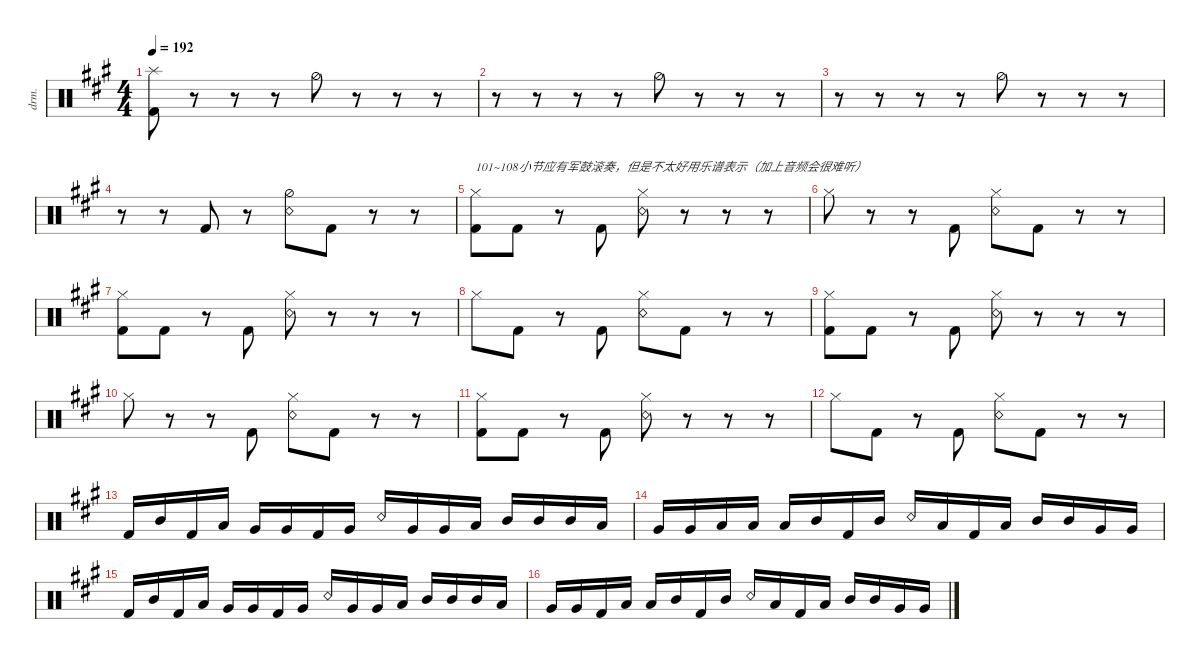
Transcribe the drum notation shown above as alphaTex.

\defaultSystemsLayout 4
\hideDynamics
\bracketExtendMode nobrackets
\otherSystemsTrackNameOrientation horizontal
\track ("Drumkit" "drm.") {instrument percussion}
\staff {score}
\articulation defaults
\ts (4 4)
\tempo 192
\clef neutral
\ks a
("Splash (hit)"{acc forcenatural} "Kick (hit) 2"{acc forcenatural}).8{dy ff beam Down} r.8{beam Down} r.8{beam Down} r.8{beam Down} "Hi-Hat (half)"{acc forcenatural}.8{beam Down} r.8{beam Down} r.8{beam Down} r.8{beam Down} |
r.8{beam Down} r.8{beam Down} r.8{beam Down} r.8{beam Down} "Hi-Hat (half)"{acc forcenatural}.8{beam Down} r.8{beam Down} r.8{beam Down} r.8{beam Down} |
r.8{beam Down} r.8{beam Down} r.8{beam Down} r.8{beam Down} "Hi-Hat (half)"{acc forcenatural}.8{beam Down} r.8{beam Down} r.8{beam Down} r.8{beam Down} |
r.8{beam Down} r.8{beam Down} "Kick (hit) 2"{acc forcenatural}.8{beam Up} r.8{beam Up} ("Snare (rim shot)"{acc forcenatural} "Hi-Hat (half)"{acc forcenatural}).8{beam Down} "Kick (hit) 2"{acc forcenatural}.8{beam Down} r.8{beam Down} r.8{beam Down} |
("Kick (hit) 2"{acc forcenatural} "Hi-Hat (closed)"{acc forcenatural}).8{txt "101~108小节应有军鼓滚奏，但是不太好用乐谱表示（加上音频会很难听）" beam Down} "Kick (hit) 2"{acc forcenatural}.8{beam Down} r.8{beam Down} "Kick (hit) 2"{acc forcenatural}.8{beam Up} ("Snare (rim shot)"{acc forcenatural} "Hi-Hat (closed)"{acc forcenatural}).8{beam Down} r.8{beam Down} r.8{beam Down} r.8{beam Down} |
"Hi-Hat (closed)"{acc forcenatural}.8{beam Down} r.8{beam Down} r.8{beam Down} "Kick (hit) 2"{acc forcenatural}.8{beam Up} ("Snare (rim shot)"{acc forcenatural} "Hi-Hat (closed)"{acc forcenatural}).8{beam Down} "Kick (hit) 2"{acc forcenatural}.8{beam Down} r.8{beam Down} r.8{beam Down} |
("Kick (hit) 2"{acc forcenatural} "Hi-Hat (closed)"{acc forcenatural}).8{beam Down} "Kick (hit) 2"{acc forcenatural}.8{beam Down} r.8{beam Down} "Kick (hit) 2"{acc forcenatural}.8{beam Up} ("Snare (rim shot)"{acc forcenatural} "Hi-Hat (closed)"{acc forcenatural}).8{beam Down} r.8{beam Down} r.8{beam Down} r.8{beam Down} |
"Hi-Hat (closed)"{acc forcenatural}.8{beam Down} "Kick (hit) 2"{acc forcenatural}.8{beam Down} r.8{beam Down} "Kick (hit) 2"{acc forcenatural}.8{beam Up} ("Snare (rim shot)"{acc forcenatural} "Hi-Hat (closed)"{acc forcenatural}).8{beam Down} "Kick (hit) 2"{acc forcenatural}.8{beam Down} r.8{beam Down} r.8{beam Down} |
("Kick (hit) 2"{acc forcenatural} "Hi-Hat (closed)"{acc forcenatural}).8{beam Down} "Kick (hit) 2"{acc forcenatural}.8{beam Down} r.8{beam Down} "Kick (hit) 2"{acc forcenatural}.8{beam Up} ("Snare (rim shot)"{acc forcenatural} "Hi-Hat (closed)"{acc forcenatural}).8{beam Down} r.8{beam Down} r.8{beam Down} r.8{beam Down} |
"Hi-Hat (closed)"{acc forcenatural}.8{beam Down} r.8{beam Down} r.8{beam Down} "Kick (hit) 2"{acc forcenatural}.8{beam Up} ("Snare (rim shot)"{acc forcenatural} "Hi-Hat (closed)"{acc forcenatural}).8{beam Down} "Kick (hit) 2"{acc forcenatural}.8{beam Down} r.8{beam Down} r.8{beam Down} |
("Kick (hit) 2"{acc forcenatural} "Hi-Hat (closed)"{acc forcenatural}).8{beam Down} "Kick (hit) 2"{acc forcenatural}.8{beam Down} r.8{beam Down} "Kick (hit) 2"{acc forcenatural}.8{beam Up} ("Snare (rim shot)"{acc forcenatural} "Hi-Hat (closed)"{acc forcenatural}).8{beam Down} r.8{beam Down} r.8{beam Down} r.8{beam Down} |
"Hi-Hat (closed)"{acc forcenatural}.8{beam Down} "Kick (hit) 2"{acc forcenatural}.8{beam Down} r.8{beam Down} "Kick (hit) 2"{acc forcenatural}.8{beam Up} ("Snare (rim shot)"{acc forcenatural} "Hi-Hat (closed)"{acc forcenatural}).8{beam Down} "Kick (hit) 2"{acc forcenatural}.8{beam Down} r.8{beam Down} r.8{beam Down} |
"Kick (hit) 2"{acc forcenatural}.16{beam Up} "Mid Tom (hit)"{acc forcenatural}.16{beam Up} "Kick (hit) 2"{acc forcenatural}.16{beam Up} "Low Tom (hit)"{acc forcenatural}.16{beam Up} "Very Low Tom (hit)"{acc forcenatural}.16{beam Up} "Very Low Tom (hit)"{acc forcenatural}.16{beam Up} "Kick (hit) 2"{acc forcenatural}.16{beam Up} "Very Low Tom (hit)"{acc forcenatural}.16{beam Up} "Snare (rim shot)"{acc forcenatural}.16{beam Up} "Very Low Tom (hit)"{acc forcenatural}.16{beam Up} "Very Low Tom (hit)"{acc forcenatural}.16{beam Up} "Low Tom (hit)"{acc forcenatural}.16{beam Up} "Mid Tom (hit)"{acc forcenatural}.16{beam Up} "Mid Tom (hit)"{acc forcenatural}.16{beam Up} "Mid Tom (hit)"{acc forcenatural}.16{beam Up} "Low Tom (hit)"{acc forcenatural}.16{beam Up} |
"Very Low Tom (hit)"{acc forcenatural}.16{beam Up} "Very Low Tom (hit)"{acc forcenatural}.16{beam Up} "Low Tom (hit)"{acc forcenatural}.16{beam Up} "Low Tom (hit)"{acc forcenatural}.16{beam Up} "Low Tom (hit)"{acc forcenatural}.16{beam Up} "Mid Tom (hit)"{acc forcenatural}.16{beam Up} "Kick (hit) 2"{acc forcenatural}.16{beam Up} "Mid Tom (hit)"{acc forcenatural}.16{beam Up} "Snare (rim shot)"{acc forcenatural}.16{beam Up} "Low Tom (hit)"{acc forcenatural}.16{beam Up} "Kick (hit) 2"{acc forcenatural}.16{beam Up} "Low Tom (hit)"{acc forcenatural}.16{beam Up} "Mid Tom (hit)"{acc forcenatural}.16{beam Up} "Mid Tom (hit)"{acc forcenatural}.16{beam Up} "Very Low Tom (hit)"{acc forcenatural}.16{beam Up} "Very Low Tom (hit)"{acc forcenatural}.16{beam Up} |
"Kick (hit) 2"{acc forcenatural}.16{beam Up} "Mid Tom (hit)"{acc forcenatural}.16{beam Up} "Kick (hit) 2"{acc forcenatural}.16{beam Up} "Low Tom (hit)"{acc forcenatural}.16{beam Up} "Very Low Tom (hit)"{acc forcenatural}.16{beam Up} "Very Low Tom (hit)"{acc forcenatural}.16{beam Up} "Kick (hit) 2"{acc forcenatural}.16{beam Up} "Very Low Tom (hit)"{acc forcenatural}.16{beam Up} "Snare (rim shot)"{acc forcenatural}.16{beam Up} "Very Low Tom (hit)"{acc forcenatural}.16{beam Up} "Very Low Tom (hit)"{acc forcenatural}.16{beam Up} "Low Tom (hit)"{acc forcenatural}.16{beam Up} "Mid Tom (hit)"{acc forcenatural}.16{beam Up} "Mid Tom (hit)"{acc forcenatural}.16{beam Up} "Mid Tom (hit)"{acc forcenatural}.16{beam Up} "Low Tom (hit)"{acc forcenatural}.16{beam Up} |
"Very Low Tom (hit)"{acc forcenatural}.16{beam Up} "Very Low Tom (hit)"{acc forcenatural}.16{beam Up} "Kick (hit) 2"{acc forcenatural}.16{beam Up} "Low Tom (hit)"{acc forcenatural}.16{beam Up} "Low Tom (hit)"{acc forcenatural}.16{beam Up} "Mid Tom (hit)"{acc forcenatural}.16{beam Up} "Kick (hit) 2"{acc forcenatural}.16{beam Up} "Mid Tom (hit)"{acc forcenatural}.16{beam Up} "Snare (rim shot)"{acc forcenatural}.16{beam Up} "Low Tom (hit)"{acc forcenatural}.16{beam Up} "Kick (hit) 2"{acc forcenatural}.16{beam Up} "Low Tom (hit)"{acc forcenatural}.16{beam Up} "Mid Tom (hit)"{acc forcenatural}.16{beam Up} "Mid Tom (hit)"{acc forcenatural}.16{beam Up} "Very Low Tom (hit)"{acc forcenatural}.16{beam Up} "Very Low Tom (hit)"{acc forcenatural}.16{beam Up}
